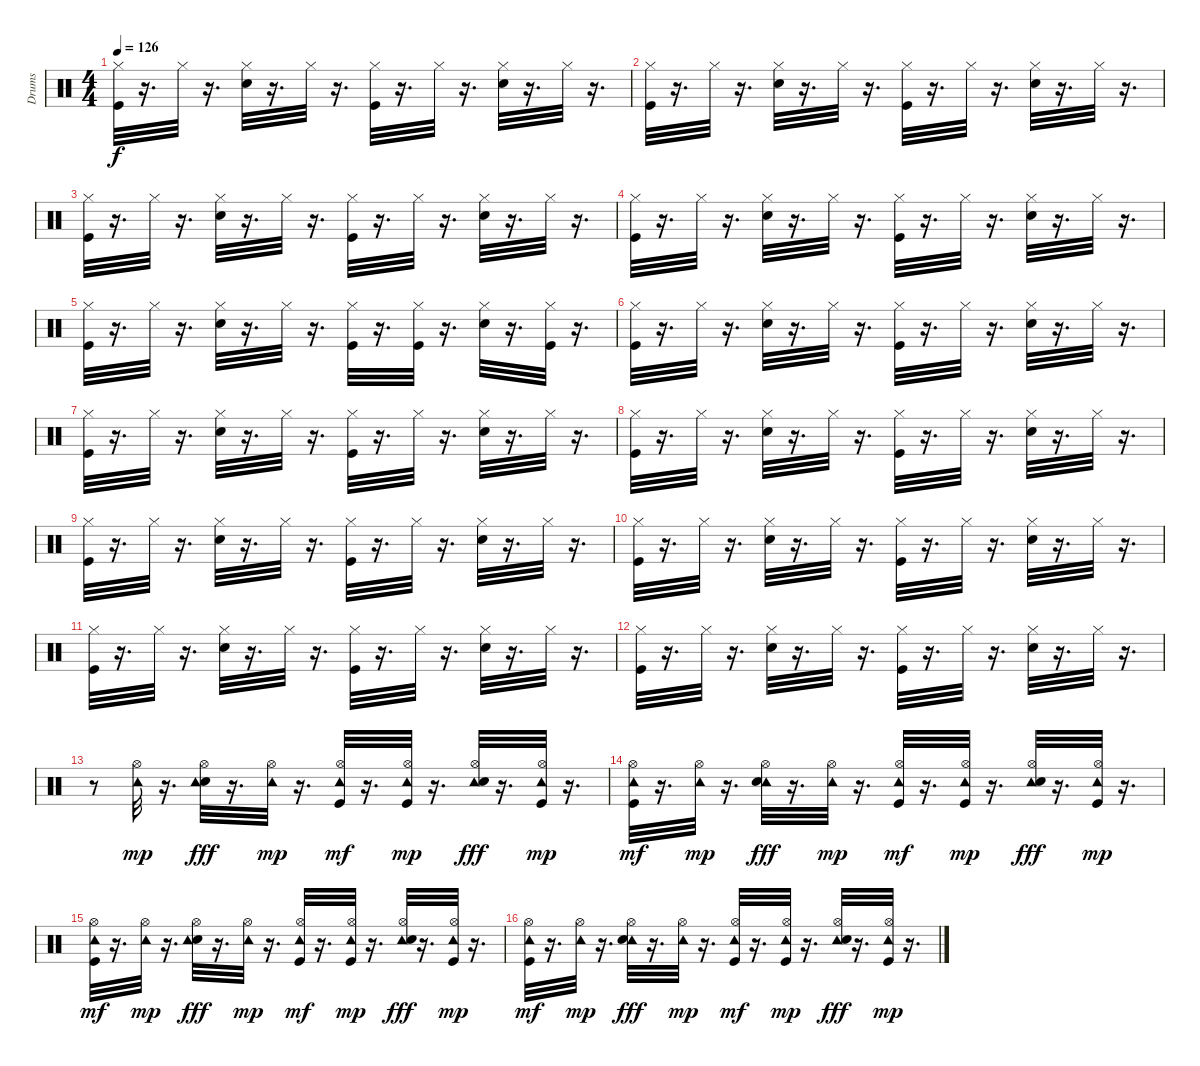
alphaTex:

\track ("Drums" "Drums") {instrument percussion}
\staff {score}
\articulation defaults
\ts (4 4)
\tempo 126
\clef neutral
\ks c
("Kick (hit)" "Hi-Hat (closed)").32{dy f} r.16{d} "Hi-Hat (closed)".32 r.16{d} ("Hi-Hat (closed)" "Snare (hit) 2").32 r.16{d} "Hi-Hat (closed)".32 r.16{d} ("Kick (hit)" "Hi-Hat (closed)").32 r.16{d} "Hi-Hat (closed)".32 r.16{d} ("Hi-Hat (closed)" "Snare (hit) 2").32 r.16{d} "Hi-Hat (closed)".32 r.16{d} |
("Hi-Hat (closed)" "Kick (hit)").32 r.16{d} "Hi-Hat (closed)".32 r.16{d} ("Hi-Hat (closed)" "Snare (hit) 2").32 r.16{d} "Hi-Hat (closed)".32 r.16{d} ("Hi-Hat (closed)" "Kick (hit)").32 r.16{d} "Hi-Hat (closed)".32 r.16{d} ("Hi-Hat (closed)" "Snare (hit) 2").32 r.16{d} "Hi-Hat (closed)".32 r.16{d} |
("Hi-Hat (closed)" "Kick (hit)").32 r.16{d} "Hi-Hat (closed)".32 r.16{d} ("Hi-Hat (closed)" "Snare (hit) 2").32 r.16{d} "Hi-Hat (closed)".32 r.16{d} ("Kick (hit)" "Hi-Hat (closed)").32 r.16{d} "Hi-Hat (closed)".32 r.16{d} ("Snare (hit) 2" "Hi-Hat (closed)").32 r.16{d} "Hi-Hat (closed)".32 r.16{d} |
("Kick (hit)" "Hi-Hat (closed)").32 r.16{d} "Hi-Hat (closed)".32 r.16{d} ("Snare (hit) 2" "Hi-Hat (closed)").32 r.16{d} "Hi-Hat (closed)".32 r.16{d} ("Hi-Hat (closed)" "Kick (hit)").32 r.16{d} "Hi-Hat (closed)".32 r.16{d} ("Snare (hit) 2" "Hi-Hat (closed)").32 r.16{d} "Hi-Hat (closed)".32 r.16{d} |
("Kick (hit)" "Hi-Hat (closed)").32 r.16{d} "Hi-Hat (closed)".32 r.16{d} ("Hi-Hat (closed)" "Snare (hit) 2").32 r.16{d} "Hi-Hat (closed)".32 r.16{d} ("Kick (hit)" "Hi-Hat (closed)").32 r.16{d} ("Hi-Hat (closed)" "Kick (hit)").32 r.16{d} ("Snare (hit) 2" "Hi-Hat (closed)").32 r.16{d} ("Hi-Hat (closed)" "Kick (hit)").32 r.16{d} |
("Kick (hit)" "Hi-Hat (closed)").32 r.16{d} "Hi-Hat (closed)".32 r.16{d} ("Snare (hit) 2" "Hi-Hat (closed)").32 r.16{d} "Hi-Hat (closed)".32 r.16{d} ("Kick (hit)" "Hi-Hat (closed)").32 r.16{d} "Hi-Hat (closed)".32 r.16{d} ("Hi-Hat (closed)" "Snare (hit) 2").32 r.16{d} "Hi-Hat (closed)".32 r.16{d} |
("Hi-Hat (closed)" "Kick (hit)").32 r.16{d} "Hi-Hat (closed)".32 r.16{d} ("Hi-Hat (closed)" "Snare (hit) 2").32 r.16{d} "Hi-Hat (closed)".32 r.16{d} ("Kick (hit)" "Hi-Hat (closed)").32 r.16{d} "Hi-Hat (closed)".32 r.16{d} ("Hi-Hat (closed)" "Snare (hit) 2").32 r.16{d} "Hi-Hat (closed)".32 r.16{d} |
("Kick (hit)" "Hi-Hat (closed)").32 r.16{d} "Hi-Hat (closed)".32 r.16{d} ("Hi-Hat (closed)" "Snare (hit) 2").32 r.16{d} "Hi-Hat (closed)".32 r.16{d} ("Kick (hit)" "Hi-Hat (closed)").32 r.16{d} "Hi-Hat (closed)".32 r.16{d} ("Snare (hit) 2" "Hi-Hat (closed)").32 r.16{d} "Hi-Hat (closed)".32 r.16{d} |
("Hi-Hat (closed)" "Kick (hit)").32 r.16{d} "Hi-Hat (closed)".32 r.16{d} ("Snare (hit) 2" "Hi-Hat (closed)").32 r.16{d} "Hi-Hat (closed)".32 r.16{d} ("Hi-Hat (closed)" "Kick (hit)").32 r.16{d} "Hi-Hat (closed)".32 r.16{d} ("Snare (hit) 2" "Hi-Hat (closed)").32 r.16{d} "Hi-Hat (closed)".32 r.16{d} |
("Kick (hit)" "Hi-Hat (closed)").32 r.16{d} "Hi-Hat (closed)".32 r.16{d} ("Snare (hit) 2" "Hi-Hat (closed)").32 r.16{d} "Hi-Hat (closed)".32 r.16{d} ("Hi-Hat (closed)" "Kick (hit)").32 r.16{d} "Hi-Hat (closed)".32 r.16{d} ("Hi-Hat (closed)" "Snare (hit) 2").32 r.16{d} "Hi-Hat (closed)".32 r.16{d} |
("Hi-Hat (closed)" "Kick (hit)").32 r.16{d} "Hi-Hat (closed)".32 r.16{d} ("Hi-Hat (closed)" "Snare (hit) 2").32 r.16{d} "Hi-Hat (closed)".32 r.16{d} ("Kick (hit)" "Hi-Hat (closed)").32 r.16{d} "Hi-Hat (closed)".32 r.16{d} ("Snare (hit) 2" "Hi-Hat (closed)").32 r.16{d} "Hi-Hat (closed)".32 r.16{d} |
("Hi-Hat (closed)" "Kick (hit)").32 r.16{d} "Hi-Hat (closed)".32 r.16{d} ("Snare (hit) 2" "Hi-Hat (closed)").32 r.16{d} "Hi-Hat (closed)".32 r.16{d} ("Kick (hit)" "Hi-Hat (closed)").32 r.16{d} "Hi-Hat (closed)".32 r.16{d} ("Snare (hit) 2" "Hi-Hat (closed)").32 r.16{d} "Hi-Hat (closed)".32 r.16{d} |
r.8 ("Hi-Hat (open)" "Tambourine (hit)").32{dy mp} r.16{d} ("Hi-Hat (open)" "Snare (hit) 2" "Tambourine (hit)").32{dy fff} r.16{d} ("Hi-Hat (open)" "Tambourine (hit)").32{dy mp} r.16{d} ("Hi-Hat (open)" "Tambourine (hit)" "Kick (hit)").32{dy mf} r.16{d} ("Hi-Hat (open)" "Tambourine (hit)" "Kick (hit)").32{dy mp} r.16{d} ("Hi-Hat (open)" "Tambourine (hit)" "Snare (hit) 2").32{dy fff} r.16{d} ("Hi-Hat (open)" "Tambourine (hit)" "Kick (hit)").32{dy mp} r.16{d} |
("Hi-Hat (open)" "Kick (hit)" "Tambourine (hit)").32{dy mf} r.16{d} ("Hi-Hat (open)" "Tambourine (hit)").32{dy mp} r.16{d} ("Hi-Hat (open)" "Tambourine (hit)" "Snare (hit) 2").32{dy fff} r.16{d} ("Hi-Hat (open)" "Tambourine (hit)").32{dy mp} r.16{d} ("Hi-Hat (open)" "Tambourine (hit)" "Kick (hit)").32{dy mf} r.16{d} ("Hi-Hat (open)" "Kick (hit)" "Tambourine (hit)").32{dy mp} r.16{d} ("Hi-Hat (open)" "Tambourine (hit)" "Snare (hit) 2").32{dy fff} r.16{d} ("Hi-Hat (open)" "Tambourine (hit)" "Kick (hit)").32{dy mp} r.16{d} |
("Hi-Hat (open)" "Tambourine (hit)" "Kick (hit)").32{dy mf} r.16{d} ("Hi-Hat (open)" "Tambourine (hit)").32{dy mp} r.16{d} ("Hi-Hat (open)" "Snare (hit) 2" "Tambourine (hit)").32{dy fff} r.16{d} ("Hi-Hat (open)" "Tambourine (hit)").32{dy mp} r.16{d} ("Hi-Hat (open)" "Tambourine (hit)" "Kick (hit)").32{dy mf} r.16{d} ("Hi-Hat (open)" "Kick (hit)" "Tambourine (hit)").32{dy mp} r.16{d} ("Hi-Hat (open)" "Tambourine (hit)" "Snare (hit) 2").32{dy fff} r.16{d} ("Hi-Hat (open)" "Kick (hit)" "Tambourine (hit)").32{dy mp} r.16{d} |
("Hi-Hat (open)" "Tambourine (hit)" "Kick (hit)").32{dy mf} r.16{d} ("Hi-Hat (open)" "Tambourine (hit)").32{dy mp} r.16{d} ("Hi-Hat (open)" "Tambourine (hit)" "Snare (hit) 2").32{dy fff} r.16{d} ("Hi-Hat (open)" "Tambourine (hit)").32{dy mp} r.16{d} ("Hi-Hat (open)" "Tambourine (hit)" "Kick (hit)").32{dy mf} r.16{d} ("Hi-Hat (open)" "Tambourine (hit)" "Kick (hit)").32{dy mp} r.16{d} ("Hi-Hat (open)" "Tambourine (hit)" "Snare (hit) 2").32{dy fff} r.16{d} ("Hi-Hat (open)" "Kick (hit)" "Tambourine (hit)").32{dy mp} r.16{d}
